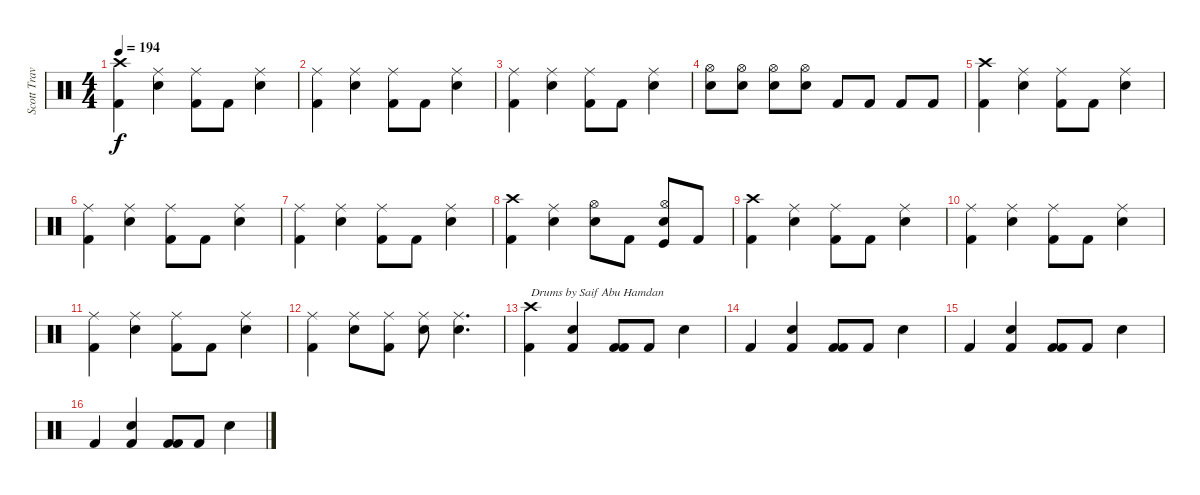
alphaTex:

\track ("Scott Travis" "Scott Trav") {instrument percussion}
\staff {score}
\articulation defaults
\ts (4 4)
\tempo 194
\clef neutral
\ks c
("Kick (hit) 2" "Crash high (hit)").4{dy f} ("Ride (middle)" "Snare (hit) 2").4 ("Ride (middle)" "Kick (hit) 2").8 "Kick (hit) 2".8 ("Snare (hit) 2" "Ride (middle)").4 |
("Kick (hit) 2" "Ride (middle)").4 ("Ride (middle)" "Snare (hit) 2").4 ("Ride (middle)" "Kick (hit) 2").8 "Kick (hit) 2".8 ("Snare (hit) 2" "Ride (middle)").4 |
("Kick (hit) 2" "Ride (middle)").4 ("Ride (middle)" "Snare (hit) 2").4 ("Ride (middle)" "Kick (hit) 2").8 "Kick (hit) 2".8 ("Snare (hit) 2" "Ride (middle)").4 |
("Hi-Hat (open)" "Snare (hit) 2").8 ("Hi-Hat (open)" "Snare (hit) 2").8 ("Hi-Hat (open)" "Snare (hit) 2").8 ("Hi-Hat (open)" "Snare (hit) 2").8 "Kick (hit) 2".8 "Kick (hit) 2".8 "Kick (hit) 2".8 "Kick (hit) 2".8 |
("Kick (hit) 2" "Crash high (hit)").4 ("Ride (middle)" "Snare (hit) 2").4 ("Ride (middle)" "Kick (hit) 2").8 "Kick (hit) 2".8 ("Snare (hit) 2" "Ride (middle)").4 |
("Kick (hit) 2" "Ride (middle)").4 ("Ride (middle)" "Snare (hit) 2").4 ("Ride (middle)" "Kick (hit) 2").8 "Kick (hit) 2".8 ("Snare (hit) 2" "Ride (middle)").4 |
("Kick (hit) 2" "Ride (middle)").4 ("Ride (middle)" "Snare (hit) 2").4 ("Ride (middle)" "Kick (hit) 2").8 "Kick (hit) 2".8 ("Snare (hit) 2" "Ride (middle)").4 |
("Kick (hit) 2" "Crash high (hit)").4 ("Ride (middle)" "Snare (hit) 2").4 ("Hi-Hat (open)" "Snare (hit) 2").8 "Kick (hit) 2".8 ("Hi-Hat (open)" "Snare (hit) 2" "Kick (hit)").8 "Kick (hit) 2".8 |
("Kick (hit) 2" "Crash high (hit)").4 ("Ride (middle)" "Snare (hit) 2").4 ("Ride (middle)" "Kick (hit) 2").8 "Kick (hit) 2".8 ("Snare (hit) 2" "Ride (middle)").4 |
("Kick (hit) 2" "Ride (middle)").4 ("Ride (middle)" "Snare (hit) 2").4 ("Ride (middle)" "Kick (hit) 2").8 "Kick (hit) 2".8 ("Snare (hit) 2" "Ride (middle)").4 |
("Kick (hit) 2" "Ride (middle)").4 ("Ride (middle)" "Snare (hit) 2").4 ("Ride (middle)" "Kick (hit) 2").8 "Kick (hit) 2".8 ("Snare (hit) 2" "Ride (middle)").4 |
("Kick (hit) 2" "Ride (middle)").4 ("Ride (middle)" "Snare (hit) 2").8 ("Ride (middle)" "Kick (hit) 2").8 ("Ride (middle)" "Snare (hit) 2").8 ("Ride (middle)" "Snare (hit) 2").4{d} |
("Kick (hit) 2" "Crash high (hit)").4{txt "Drums by Saif Abu Hamdan"} ("Kick (hit) 2" "Snare (hit) 2").4 ("Kick (hit) 2" "Kick (hit) 2").8 "Kick (hit) 2".8 "Snare (hit) 2".4 |
"Kick (hit) 2".4 ("Kick (hit) 2" "Snare (hit) 2").4 ("Kick (hit) 2" "Kick (hit) 2").8 "Kick (hit) 2".8 "Snare (hit) 2".4 |
"Kick (hit) 2".4 ("Kick (hit) 2" "Snare (hit) 2").4 ("Kick (hit) 2" "Kick (hit) 2").8 "Kick (hit) 2".8 "Snare (hit) 2".4 |
"Kick (hit) 2".4 ("Kick (hit) 2" "Snare (hit) 2").4 ("Kick (hit) 2" "Kick (hit) 2").8 "Kick (hit) 2".8 "Snare (hit) 2".4
